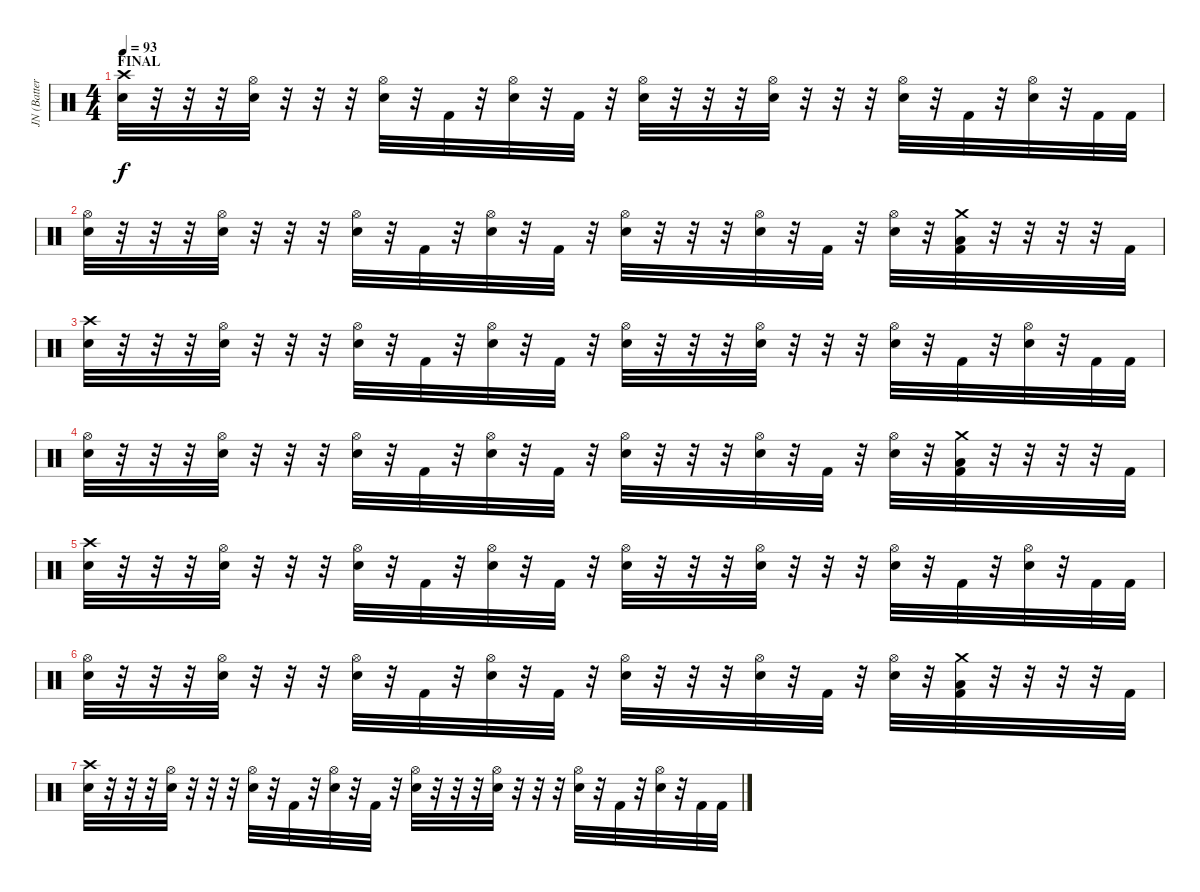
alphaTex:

\track ("JN (Batterie)" "JN (Batter") {instrument percussion}
\staff {score}
\articulation defaults
\ts (4 4)
\section ("" "FINAL")
\tempo 93
\clef neutral
\ks c
("Crash high (hit)" "Electric Snare (hit)").32{dy f} r.32 r.32 r.32 ("Hi-Hat (open)" "Electric Snare (hit)").32 r.32 r.32 r.32 ("Hi-Hat (open)" "Electric Snare (hit)").32 r.32 "Kick (hit) 2".32 r.32 ("Hi-Hat (open)" "Electric Snare (hit)").32 r.32 "Kick (hit) 2".32 r.32 ("Hi-Hat (open)" "Electric Snare (hit)").32 r.32 r.32 r.32 ("Hi-Hat (open)" "Electric Snare (hit)").32 r.32 r.32 r.32 ("Hi-Hat (open)" "Electric Snare (hit)").32 r.32 "Kick (hit) 2".32 r.32 ("Hi-Hat (open)" "Electric Snare (hit)").32 r.32 "Kick (hit) 2".32 "Kick (hit) 2".32 |
("Hi-Hat (open)" "Electric Snare (hit)").32 r.32 r.32 r.32 ("Hi-Hat (open)" "Electric Snare (hit)").32 r.32 r.32 r.32 ("Hi-Hat (open)" "Electric Snare (hit)").32 r.32 "Kick (hit) 2".32 r.32 ("Hi-Hat (open)" "Electric Snare (hit)").32 r.32 "Kick (hit) 2".32 r.32 ("Hi-Hat (open)" "Electric Snare (hit)").32 r.32 r.32 r.32 ("Hi-Hat (open)" "Electric Snare (hit)").32 r.32 "Kick (hit) 2".32 r.32 ("Hi-Hat (open)" "Electric Snare (hit)").32 r.32 ("Crash medium (hit)" "Low Tom (hit)" "Kick (hit) 2").32 r.32 r.32 r.32 r.32 "Kick (hit) 2".32 |
("Crash high (hit)" "Electric Snare (hit)").32 r.32 r.32 r.32 ("Hi-Hat (open)" "Electric Snare (hit)").32 r.32 r.32 r.32 ("Hi-Hat (open)" "Electric Snare (hit)").32 r.32 "Kick (hit) 2".32 r.32 ("Hi-Hat (open)" "Electric Snare (hit)").32 r.32 "Kick (hit) 2".32 r.32 ("Hi-Hat (open)" "Electric Snare (hit)").32 r.32 r.32 r.32 ("Hi-Hat (open)" "Electric Snare (hit)").32 r.32 r.32 r.32 ("Hi-Hat (open)" "Electric Snare (hit)").32 r.32 "Kick (hit) 2".32 r.32 ("Hi-Hat (open)" "Electric Snare (hit)").32 r.32 "Kick (hit) 2".32 "Kick (hit) 2".32 |
("Hi-Hat (open)" "Electric Snare (hit)").32 r.32 r.32 r.32 ("Hi-Hat (open)" "Electric Snare (hit)").32 r.32 r.32 r.32 ("Hi-Hat (open)" "Electric Snare (hit)").32 r.32 "Kick (hit) 2".32 r.32 ("Hi-Hat (open)" "Electric Snare (hit)").32 r.32 "Kick (hit) 2".32 r.32 ("Hi-Hat (open)" "Electric Snare (hit)").32 r.32 r.32 r.32 ("Hi-Hat (open)" "Electric Snare (hit)").32 r.32 "Kick (hit) 2".32 r.32 ("Hi-Hat (open)" "Electric Snare (hit)").32 r.32 ("Crash medium (hit)" "Low Tom (hit)" "Kick (hit) 2").32 r.32 r.32 r.32 r.32 "Kick (hit) 2".32 |
("Crash high (hit)" "Electric Snare (hit)").32 r.32 r.32 r.32 ("Hi-Hat (open)" "Electric Snare (hit)").32 r.32 r.32 r.32 ("Hi-Hat (open)" "Electric Snare (hit)").32 r.32 "Kick (hit) 2".32 r.32 ("Hi-Hat (open)" "Electric Snare (hit)").32 r.32 "Kick (hit) 2".32 r.32 ("Hi-Hat (open)" "Electric Snare (hit)").32 r.32 r.32 r.32 ("Hi-Hat (open)" "Electric Snare (hit)").32 r.32 r.32 r.32 ("Hi-Hat (open)" "Electric Snare (hit)").32 r.32 "Kick (hit) 2".32 r.32 ("Hi-Hat (open)" "Electric Snare (hit)").32 r.32 "Kick (hit) 2".32 "Kick (hit) 2".32 |
("Hi-Hat (open)" "Electric Snare (hit)").32 r.32 r.32 r.32 ("Hi-Hat (open)" "Electric Snare (hit)").32 r.32 r.32 r.32 ("Hi-Hat (open)" "Electric Snare (hit)").32 r.32 "Kick (hit) 2".32 r.32 ("Hi-Hat (open)" "Electric Snare (hit)").32 r.32 "Kick (hit) 2".32 r.32 ("Hi-Hat (open)" "Electric Snare (hit)").32 r.32 r.32 r.32 ("Hi-Hat (open)" "Electric Snare (hit)").32 r.32 "Kick (hit) 2".32 r.32 ("Hi-Hat (open)" "Electric Snare (hit)").32 r.32 ("Crash medium (hit)" "Low Tom (hit)" "Kick (hit) 2").32 r.32 r.32 r.32 r.32 "Kick (hit) 2".32 |
("Crash high (hit)" "Electric Snare (hit)").32 r.32 r.32 r.32 ("Hi-Hat (open)" "Electric Snare (hit)").32 r.32 r.32 r.32 ("Hi-Hat (open)" "Electric Snare (hit)").32 r.32 "Kick (hit) 2".32 r.32 ("Hi-Hat (open)" "Electric Snare (hit)").32 r.32 "Kick (hit) 2".32 r.32 ("Hi-Hat (open)" "Electric Snare (hit)").32 r.32 r.32 r.32 ("Hi-Hat (open)" "Electric Snare (hit)").32 r.32 r.32 r.32 ("Hi-Hat (open)" "Electric Snare (hit)").32 r.32 "Kick (hit) 2".32 r.32 ("Hi-Hat (open)" "Electric Snare (hit)").32 r.32 "Kick (hit) 2".32 "Kick (hit) 2".32
